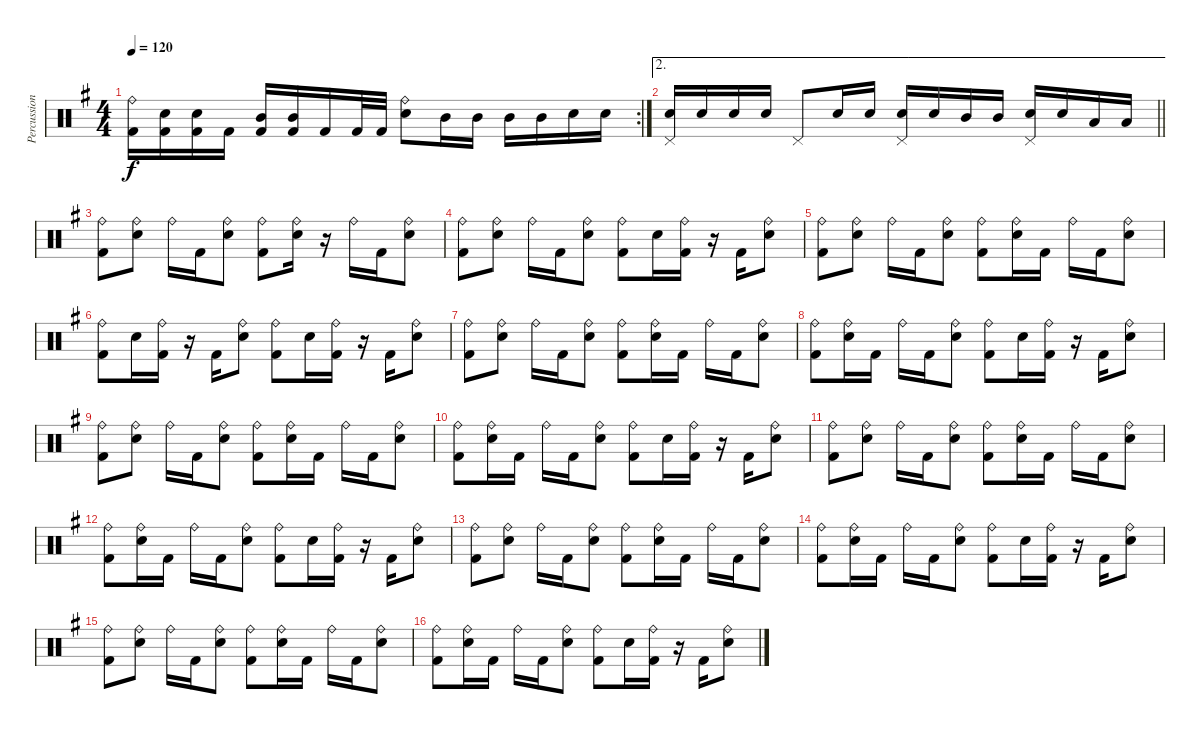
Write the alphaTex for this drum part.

\track ("Percussion" "Percussion") {instrument percussion}
\staff {score}
\articulation defaults
\rc 2
\ts (4 4)
\tempo 120
\clef neutral
\ks eminor
("Ride (bell)" "Kick (hit) 2").16{dy f} ("Snare (hit) 2" "Kick (hit) 2").16 ("Snare (hit) 2" "Kick (hit) 2").16 "Kick (hit) 2".16 ("Mid Tom (hit)" "Kick (hit) 2").16 ("Mid Tom (hit)" "Kick (hit) 2").16 "Kick (hit) 2".16 "Kick (hit) 2".32 "Kick (hit) 2".32 ("Ride (bell)" "Snare (hit) 2").8 "Mid Tom (hit)".16 "Mid Tom (hit)".16 "Mid Tom (hit)".16 "Mid Tom (hit)".16 "Snare (hit) 2".16 "Snare (hit) 2".16 |
\ae 2
\barLineRight lightlight
("Pedal Hi-Hat (hit)" "Snare (hit) 2").16 "Snare (hit) 2".16 "Snare (hit) 2".16 "Snare (hit) 2".16 "Pedal Hi-Hat (hit)".8 "Snare (hit) 2".16 "Snare (hit) 2".16 ("Pedal Hi-Hat (hit)" "Snare (hit) 2").16 "Snare (hit) 2".16 "Mid Tom (hit)".16 "Mid Tom (hit)".16 ("Pedal Hi-Hat (hit)" "Snare (hit) 2").16 "Snare (hit) 2".16 "Low Tom (hit)".16 "Low Tom (hit)".16 |
("Ride (bell)" "Kick (hit) 2").8 ("Ride (bell)" "Snare (hit) 2").8 "Ride (bell)".16 "Kick (hit) 2".16 ("Ride (bell)" "Snare (hit) 2").8 ("Ride (bell)" "Kick (hit) 2").8 ("Ride (bell)" "Snare (hit) 2").16 r.16 "Ride (bell)".16 "Kick (hit) 2".16 ("Ride (bell)" "Snare (hit) 2").8 |
("Ride (bell)" "Kick (hit) 2").8 ("Ride (bell)" "Snare (hit) 2").8 "Ride (bell)".16 "Kick (hit) 2".16 ("Ride (bell)" "Snare (hit) 2").8 ("Ride (bell)" "Kick (hit) 2").8 "Snare (hit) 2".16 ("Ride (bell)" "Kick (hit) 2").16 r.16 "Kick (hit) 2".16 ("Ride (bell)" "Snare (hit) 2").8 |
("Ride (bell)" "Kick (hit) 2").8 ("Ride (bell)" "Snare (hit) 2").8 "Ride (bell)".16 "Kick (hit) 2".16 ("Ride (bell)" "Snare (hit) 2").8 ("Ride (bell)" "Kick (hit) 2").8 ("Ride (bell)" "Snare (hit) 2").16 "Kick (hit) 2".16 "Ride (bell)".16 "Kick (hit) 2".16 ("Ride (bell)" "Snare (hit) 2").8 |
("Ride (bell)" "Kick (hit) 2").8 "Snare (hit) 2".16 ("Ride (bell)" "Kick (hit) 2").16 r.16 "Kick (hit) 2".16 ("Ride (bell)" "Snare (hit) 2").8 ("Ride (bell)" "Kick (hit) 2").8 "Snare (hit) 2".16 ("Ride (bell)" "Kick (hit) 2").16 r.16 "Kick (hit) 2".16 ("Ride (bell)" "Snare (hit) 2").8 |
("Ride (bell)" "Kick (hit) 2").8 ("Ride (bell)" "Snare (hit) 2").8 "Ride (bell)".16 "Kick (hit) 2".16 ("Ride (bell)" "Snare (hit) 2").8 ("Ride (bell)" "Kick (hit) 2").8 ("Ride (bell)" "Snare (hit) 2").16 "Kick (hit) 2".16 "Ride (bell)".16 "Kick (hit) 2".16 ("Ride (bell)" "Snare (hit) 2").8 |
("Ride (bell)" "Kick (hit) 2").8 ("Ride (bell)" "Snare (hit) 2").16 "Kick (hit) 2".16 "Ride (bell)".16 "Kick (hit) 2".16 ("Ride (bell)" "Snare (hit) 2").8 ("Ride (bell)" "Kick (hit) 2").8 "Snare (hit) 2".16 ("Ride (bell)" "Kick (hit) 2").16 r.16 "Kick (hit) 2".16 ("Ride (bell)" "Snare (hit) 2").8 |
("Ride (bell)" "Kick (hit) 2").8 ("Ride (bell)" "Snare (hit) 2").8 "Ride (bell)".16 "Kick (hit) 2".16 ("Ride (bell)" "Snare (hit) 2").8 ("Ride (bell)" "Kick (hit) 2").8 ("Ride (bell)" "Snare (hit) 2").16 "Kick (hit) 2".16 "Ride (bell)".16 "Kick (hit) 2".16 ("Ride (bell)" "Snare (hit) 2").8 |
("Ride (bell)" "Kick (hit) 2").8 ("Ride (bell)" "Snare (hit) 2").16 "Kick (hit) 2".16 "Ride (bell)".16 "Kick (hit) 2".16 ("Ride (bell)" "Snare (hit) 2").8 ("Ride (bell)" "Kick (hit) 2").8 "Snare (hit) 2".16 ("Ride (bell)" "Kick (hit) 2").16 r.16 "Kick (hit) 2".16 ("Ride (bell)" "Snare (hit) 2").8 |
("Ride (bell)" "Kick (hit) 2").8 ("Ride (bell)" "Snare (hit) 2").8 "Ride (bell)".16 "Kick (hit) 2".16 ("Ride (bell)" "Snare (hit) 2").8 ("Ride (bell)" "Kick (hit) 2").8 ("Ride (bell)" "Snare (hit) 2").16 "Kick (hit) 2".16 "Ride (bell)".16 "Kick (hit) 2".16 ("Ride (bell)" "Snare (hit) 2").8 |
("Ride (bell)" "Kick (hit) 2").8 ("Ride (bell)" "Snare (hit) 2").16 "Kick (hit) 2".16 "Ride (bell)".16 "Kick (hit) 2".16 ("Ride (bell)" "Snare (hit) 2").8 ("Ride (bell)" "Kick (hit) 2").8 "Snare (hit) 2".16 ("Ride (bell)" "Kick (hit) 2").16 r.16 "Kick (hit) 2".16 ("Ride (bell)" "Snare (hit) 2").8 |
("Ride (bell)" "Kick (hit) 2").8 ("Ride (bell)" "Snare (hit) 2").8 "Ride (bell)".16 "Kick (hit) 2".16 ("Ride (bell)" "Snare (hit) 2").8 ("Ride (bell)" "Kick (hit) 2").8 ("Ride (bell)" "Snare (hit) 2").16 "Kick (hit) 2".16 "Ride (bell)".16 "Kick (hit) 2".16 ("Ride (bell)" "Snare (hit) 2").8 |
("Ride (bell)" "Kick (hit) 2").8 ("Ride (bell)" "Snare (hit) 2").16 "Kick (hit) 2".16 "Ride (bell)".16 "Kick (hit) 2".16 ("Ride (bell)" "Snare (hit) 2").8 ("Ride (bell)" "Kick (hit) 2").8 "Snare (hit) 2".16 ("Ride (bell)" "Kick (hit) 2").16 r.16 "Kick (hit) 2".16 ("Ride (bell)" "Snare (hit) 2").8 |
("Ride (bell)" "Kick (hit) 2").8 ("Ride (bell)" "Snare (hit) 2").8 "Ride (bell)".16 "Kick (hit) 2".16 ("Ride (bell)" "Snare (hit) 2").8 ("Ride (bell)" "Kick (hit) 2").8 ("Ride (bell)" "Snare (hit) 2").16 "Kick (hit) 2".16 "Ride (bell)".16 "Kick (hit) 2".16 ("Ride (bell)" "Snare (hit) 2").8 |
("Ride (bell)" "Kick (hit) 2").8 ("Ride (bell)" "Snare (hit) 2").16 "Kick (hit) 2".16 "Ride (bell)".16 "Kick (hit) 2".16 ("Ride (bell)" "Snare (hit) 2").8 ("Ride (bell)" "Kick (hit) 2").8 "Snare (hit) 2".16 ("Ride (bell)" "Kick (hit) 2").16 r.16 "Kick (hit) 2".16 ("Ride (bell)" "Snare (hit) 2").8
